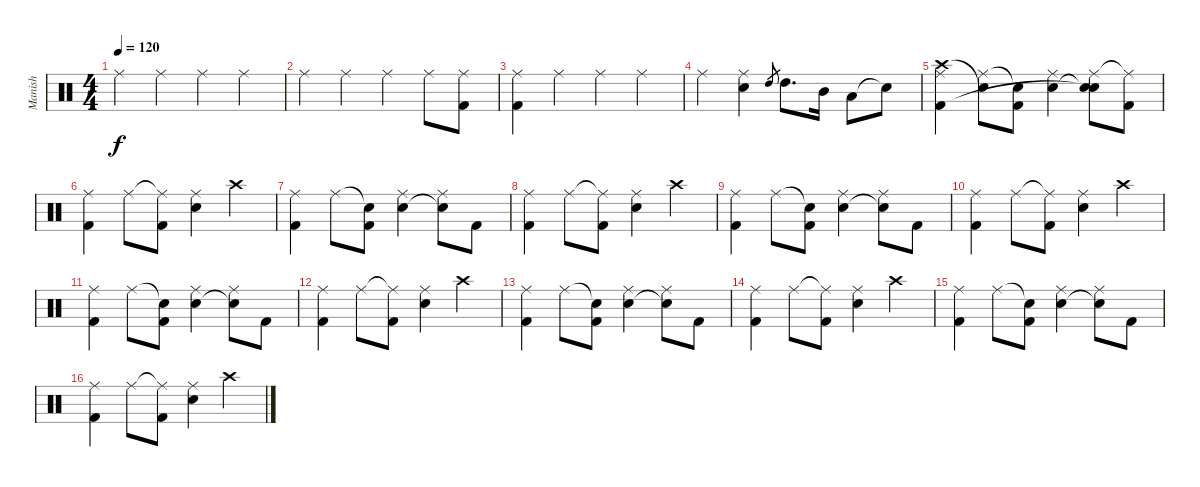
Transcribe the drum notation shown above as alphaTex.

\track ("Manish" "Manish") {instrument percussion}
\staff {score}
\articulation defaults
\ts (4 4)
\tempo 120
\clef neutral
\ks c "Ride (middle)".4{dy f} "Ride (middle)".4 "Ride (middle)".4 "Ride (middle)".4
|
"Ride (middle)".4 "Ride (middle)".4 "Ride (middle)".4 "Ride (middle)".8 ("Ride (middle)" "Kick (hit) 2").8 |
("Ride (middle)" "Kick (hit) 2").4 "Ride (middle)".4 "Ride (middle)".4 "Ride (middle)".4 |
"Ride (middle)".4 ("Ride (middle)" "Snare (hit) 2").4 "High Tom (hit)".8{gr} "High Tom (hit)".8{d} "Mid Tom (hit)".16 "Low Tom (hit)".8 "Snare (hit)"{t}.8 |
("Ride (middle)" "Crash high (hit)" "Kick (hit) 2").4 ("Ride (middle)" "Snare (hit)"{t}).8 ("Snare (hit)"{t} "Kick (hit) 2").8 ("Ride (middle)" "Snare (hit) 2").4 ("Ride (middle)" "Snare (hit)"{t} "Snare (hit)"{t}).8 ("Ride (middle)"{t} "Kick (hit) 2").8 |
("Ride (middle)" "Kick (hit) 2").4 "Ride (middle)".8 ("Ride (middle)"{t} "Kick (hit) 2").8 ("Ride (middle)" "Snare (hit) 2").4 "Crash high (hit)".4 |
("Ride (middle)" "Kick (hit) 2").4 "Ride (middle)".8 ("Snare (hit)"{t} "Kick (hit) 2").8 ("Ride (middle)" "Snare (hit) 2").4 ("Ride (middle)" "Snare (hit)"{t}).8 "Kick (hit) 2".8 |
("Ride (middle)" "Kick (hit) 2").4 "Ride (middle)".8 ("Ride (middle)"{t} "Kick (hit) 2").8 ("Ride (middle)" "Snare (hit) 2").4 "Crash high (hit)".4 |
("Ride (middle)" "Kick (hit) 2").4 "Ride (middle)".8 ("Snare (hit)"{t} "Kick (hit) 2").8 ("Ride (middle)" "Snare (hit) 2").4 ("Ride (middle)" "Snare (hit)"{t}).8 "Kick (hit) 2".8 |
("Ride (middle)" "Kick (hit) 2").4 "Ride (middle)".8 ("Ride (middle)"{t} "Kick (hit) 2").8 ("Ride (middle)" "Snare (hit) 2").4 "Crash high (hit)".4 |
("Ride (middle)" "Kick (hit) 2").4 "Ride (middle)".8 ("Snare (hit)"{t} "Kick (hit) 2").8 ("Ride (middle)" "Snare (hit) 2").4 ("Ride (middle)" "Snare (hit)"{t}).8 "Kick (hit) 2".8 |
("Ride (middle)" "Kick (hit) 2").4 "Ride (middle)".8 ("Ride (middle)"{t} "Kick (hit) 2").8 ("Ride (middle)" "Snare (hit) 2").4 "Crash high (hit)".4 |
("Ride (middle)" "Kick (hit) 2").4 "Ride (middle)".8 ("Snare (hit)"{t} "Kick (hit) 2").8 ("Ride (middle)" "Snare (hit) 2").4 ("Ride (middle)" "Snare (hit)"{t}).8 "Kick (hit) 2".8 |
("Ride (middle)" "Kick (hit) 2").4 "Ride (middle)".8 ("Ride (middle)"{t} "Kick (hit) 2").8 ("Ride (middle)" "Snare (hit) 2").4 "Crash high (hit)".4 |
("Ride (middle)" "Kick (hit) 2").4 "Ride (middle)".8 ("Snare (hit)"{t} "Kick (hit) 2").8 ("Ride (middle)" "Snare (hit) 2").4 ("Ride (middle)" "Snare (hit)"{t}).8 "Kick (hit) 2".8 |
("Ride (middle)" "Kick (hit) 2").4 "Ride (middle)".8 ("Ride (middle)"{t} "Kick (hit) 2").8 ("Ride (middle)" "Snare (hit) 2").4 "Crash high (hit)".4
